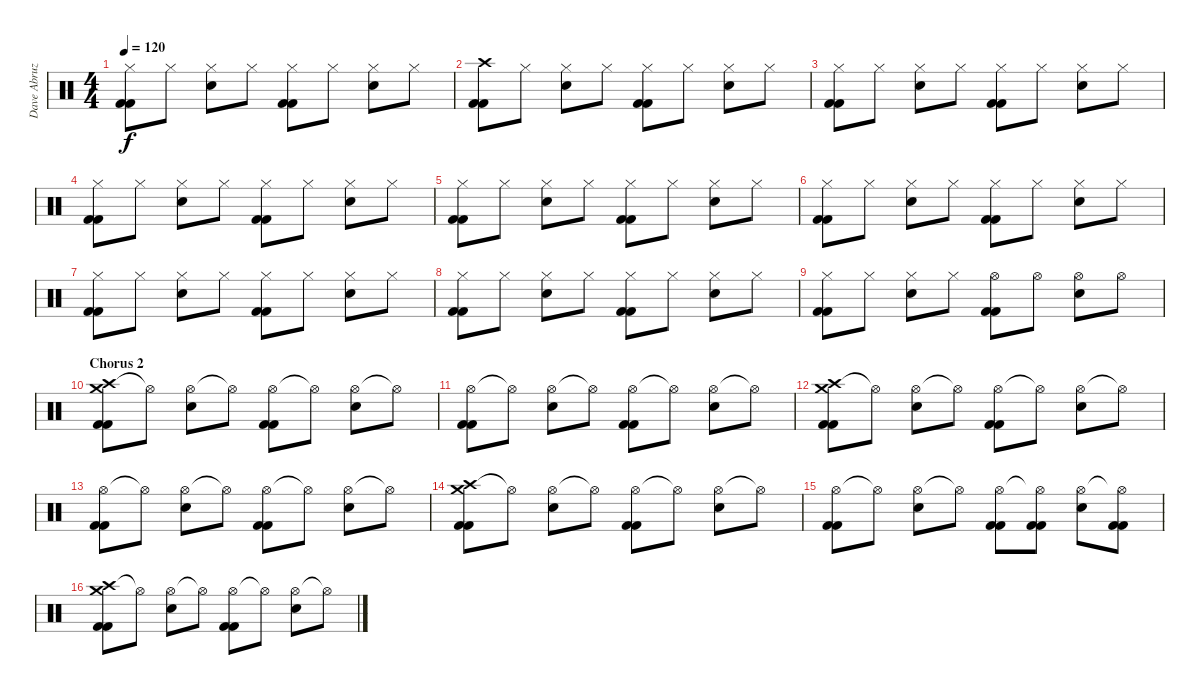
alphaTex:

\track ("Dave Abruzzese" "Dave Abruz") {instrument percussion}
\staff {score}
\articulation defaults
\ts (4 4)
\tempo 120
\clef neutral
\ks c
("Hi-Hat (closed)" "Kick (hit) 2" "Kick (hit) 2").8{dy f} "Hi-Hat (closed)".8 ("Hi-Hat (closed)" "Electric Snare (hit)").8 "Hi-Hat (closed)".8 ("Hi-Hat (closed)" "Kick (hit) 2" "Kick (hit) 2").8 "Hi-Hat (closed)".8 ("Hi-Hat (closed)" "Electric Snare (hit)").8 "Hi-Hat (closed)".8 |
("Crash high (hit)" "Kick (hit) 2" "Kick (hit) 2").8 "Hi-Hat (closed)".8 ("Hi-Hat (closed)" "Electric Snare (hit)").8 "Hi-Hat (closed)".8 ("Hi-Hat (closed)" "Kick (hit) 2" "Kick (hit) 2").8 "Hi-Hat (closed)".8 ("Hi-Hat (closed)" "Electric Snare (hit)").8 "Hi-Hat (closed)".8 |
("Hi-Hat (closed)" "Kick (hit) 2" "Kick (hit) 2").8 "Hi-Hat (closed)".8 ("Hi-Hat (closed)" "Electric Snare (hit)").8 "Hi-Hat (closed)".8 ("Hi-Hat (closed)" "Kick (hit) 2" "Kick (hit) 2").8 "Hi-Hat (closed)".8 ("Hi-Hat (closed)" "Electric Snare (hit)").8 "Hi-Hat (closed)".8 |
("Hi-Hat (closed)" "Kick (hit) 2" "Kick (hit) 2").8 "Hi-Hat (closed)".8 ("Hi-Hat (closed)" "Electric Snare (hit)").8 "Hi-Hat (closed)".8 ("Hi-Hat (closed)" "Kick (hit) 2" "Kick (hit) 2").8 "Hi-Hat (closed)".8 ("Hi-Hat (closed)" "Electric Snare (hit)").8 "Hi-Hat (closed)".8 |
("Hi-Hat (closed)" "Kick (hit) 2" "Kick (hit) 2").8 "Hi-Hat (closed)".8 ("Hi-Hat (closed)" "Electric Snare (hit)").8 "Hi-Hat (closed)".8 ("Hi-Hat (closed)" "Kick (hit) 2" "Kick (hit) 2").8 "Hi-Hat (closed)".8 ("Hi-Hat (closed)" "Electric Snare (hit)").8 "Hi-Hat (closed)".8 |
("Hi-Hat (closed)" "Kick (hit) 2" "Kick (hit) 2").8 "Hi-Hat (closed)".8 ("Hi-Hat (closed)" "Electric Snare (hit)").8 "Hi-Hat (closed)".8 ("Hi-Hat (closed)" "Kick (hit) 2" "Kick (hit) 2").8 "Hi-Hat (closed)".8 ("Hi-Hat (closed)" "Electric Snare (hit)").8 "Hi-Hat (closed)".8 |
("Hi-Hat (closed)" "Kick (hit) 2" "Kick (hit) 2").8 "Hi-Hat (closed)".8 ("Hi-Hat (closed)" "Electric Snare (hit)").8 "Hi-Hat (closed)".8 ("Hi-Hat (closed)" "Kick (hit) 2" "Kick (hit) 2").8 "Hi-Hat (closed)".8 ("Hi-Hat (closed)" "Electric Snare (hit)").8 "Hi-Hat (closed)".8 |
("Hi-Hat (closed)" "Kick (hit) 2" "Kick (hit) 2").8 "Hi-Hat (closed)".8 ("Hi-Hat (closed)" "Electric Snare (hit)").8 "Hi-Hat (closed)".8 ("Hi-Hat (closed)" "Kick (hit) 2" "Kick (hit) 2").8 "Hi-Hat (closed)".8 ("Hi-Hat (closed)" "Electric Snare (hit)").8 "Hi-Hat (closed)".8 |
("Hi-Hat (closed)" "Kick (hit) 2" "Kick (hit) 2").8 "Hi-Hat (closed)".8 ("Hi-Hat (closed)" "Electric Snare (hit)").8 "Hi-Hat (closed)".8 ("Hi-Hat (open)" "Kick (hit) 2" "Kick (hit) 2").8 "Hi-Hat (open)".8 ("Hi-Hat (open)" "Electric Snare (hit)").8 "Hi-Hat (open)".8 |
\section ("" "Chorus 2")
("Crash high (hit)" "Crash medium (hit)" "Kick (hit) 2" "Kick (hit) 2").8 "Hi-Hat (open)"{t}.8 ("Hi-Hat (open)" "Electric Snare (hit)").8 "Hi-Hat (open)"{t}.8 ("Hi-Hat (open)" "Kick (hit) 2" "Kick (hit) 2").8 "Hi-Hat (open)"{t}.8 ("Hi-Hat (open)" "Electric Snare (hit)").8 "Hi-Hat (open)"{t}.8 |
("Hi-Hat (open)" "Kick (hit) 2" "Kick (hit) 2").8 "Hi-Hat (open)"{t}.8 ("Hi-Hat (open)" "Electric Snare (hit)").8 "Hi-Hat (open)"{t}.8 ("Hi-Hat (open)" "Kick (hit) 2" "Kick (hit) 2").8 "Hi-Hat (open)"{t}.8 ("Hi-Hat (open)" "Electric Snare (hit)").8 "Hi-Hat (open)"{t}.8 |
("Crash high (hit)" "Crash medium (hit)" "Kick (hit) 2" "Kick (hit) 2").8 "Hi-Hat (open)"{t}.8 ("Hi-Hat (open)" "Electric Snare (hit)").8 "Hi-Hat (open)"{t}.8 ("Hi-Hat (open)" "Kick (hit) 2" "Kick (hit) 2").8 "Hi-Hat (open)"{t}.8 ("Hi-Hat (open)" "Electric Snare (hit)").8 "Hi-Hat (open)"{t}.8 |
("Hi-Hat (open)" "Kick (hit) 2" "Kick (hit) 2").8 "Hi-Hat (open)"{t}.8 ("Hi-Hat (open)" "Electric Snare (hit)").8 "Hi-Hat (open)"{t}.8 ("Hi-Hat (open)" "Kick (hit) 2" "Kick (hit) 2").8 "Hi-Hat (open)"{t}.8 ("Hi-Hat (open)" "Electric Snare (hit)").8 "Hi-Hat (open)"{t}.8 |
("Crash high (hit)" "Crash medium (hit)" "Kick (hit) 2" "Kick (hit) 2").8 "Hi-Hat (open)"{t}.8 ("Hi-Hat (open)" "Electric Snare (hit)").8 "Hi-Hat (open)"{t}.8 ("Hi-Hat (open)" "Kick (hit) 2" "Kick (hit) 2").8 "Hi-Hat (open)"{t}.8 ("Hi-Hat (open)" "Electric Snare (hit)").8 "Hi-Hat (open)"{t}.8 |
("Hi-Hat (open)" "Kick (hit) 2" "Kick (hit) 2").8 "Hi-Hat (open)"{t}.8 ("Hi-Hat (open)" "Electric Snare (hit)").8 "Hi-Hat (open)"{t}.8 ("Hi-Hat (open)" "Kick (hit) 2" "Kick (hit) 2").8 ("Hi-Hat (open)"{t} "Kick (hit) 2" "Kick (hit) 2").8 ("Hi-Hat (open)" "Electric Snare (hit)").8 ("Hi-Hat (open)"{t} "Kick (hit) 2" "Kick (hit) 2").8 |
("Crash high (hit)" "Crash medium (hit)" "Kick (hit) 2" "Kick (hit) 2").8 "Hi-Hat (open)"{t}.8 ("Hi-Hat (open)" "Electric Snare (hit)").8 "Hi-Hat (open)"{t}.8 ("Hi-Hat (open)" "Kick (hit) 2" "Kick (hit) 2").8 "Hi-Hat (open)"{t}.8 ("Hi-Hat (open)" "Electric Snare (hit)").8 "Hi-Hat (open)"{t}.8
